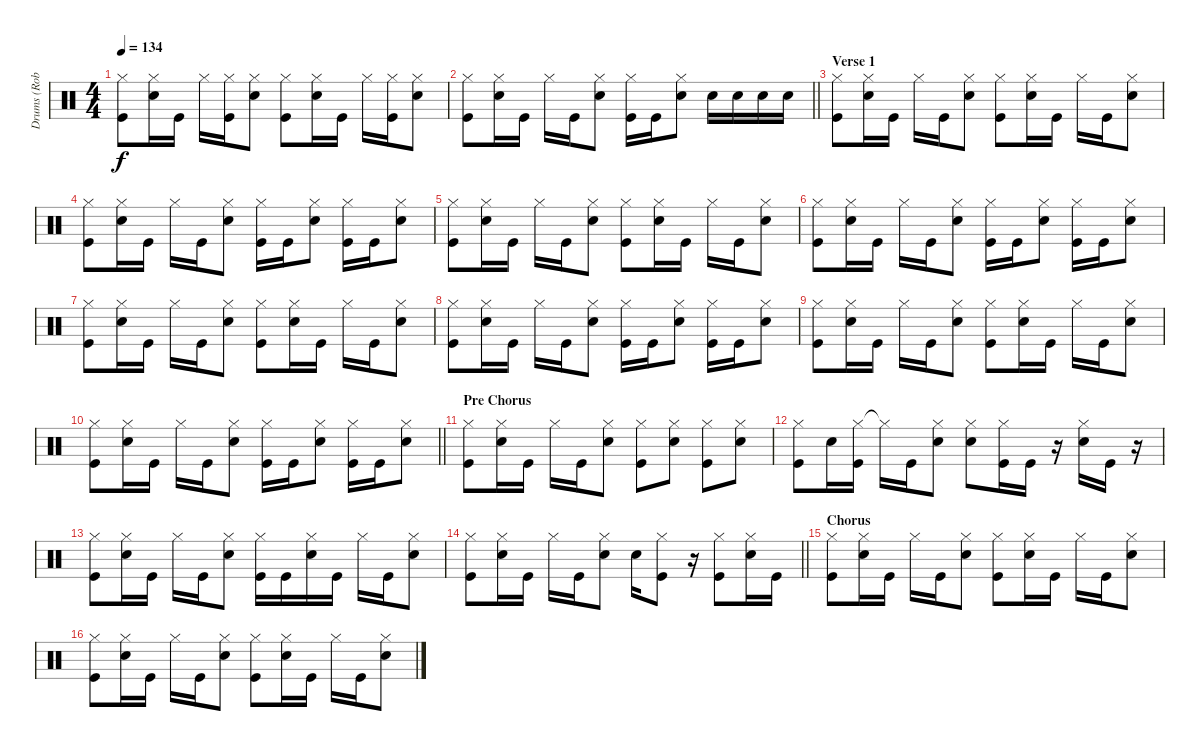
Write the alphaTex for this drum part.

\track ("Drums (Rob Affuso)" "Drums (Rob") {instrument percussion}
\staff {score}
\articulation defaults
\ts (4 4)
\tempo 134
\clef neutral
\ks c
("Hi-Hat (closed)" "Kick (hit)").8{dy f} ("Hi-Hat (closed)" "Snare (hit) 2").16 "Kick (hit)".16 "Hi-Hat (closed)".16 ("Hi-Hat (closed)" "Kick (hit)").16 ("Hi-Hat (closed)" "Snare (hit) 2").8 ("Hi-Hat (closed)" "Kick (hit)").8 ("Hi-Hat (closed)" "Snare (hit) 2").16 "Kick (hit)".16 "Hi-Hat (closed)".16 ("Hi-Hat (closed)" "Kick (hit)").16 ("Hi-Hat (closed)" "Snare (hit) 2").8 |
\barLineRight lightlight
("Hi-Hat (closed)" "Kick (hit)").8 ("Hi-Hat (closed)" "Snare (hit) 2").16 "Kick (hit)".16 "Hi-Hat (closed)".16 "Kick (hit)".16 ("Hi-Hat (closed)" "Snare (hit) 2").8 ("Hi-Hat (closed)" "Kick (hit)").16 "Kick (hit)".16 ("Hi-Hat (closed)" "Snare (hit) 2").8 "Snare (hit) 2".16 "Snare (hit) 2".16 "Snare (hit) 2".16 "Snare (hit) 2".16 |
\section ("" "Verse 1")
("Hi-Hat (closed)" "Kick (hit)").8 ("Hi-Hat (closed)" "Snare (hit) 2").16 "Kick (hit)".16 "Hi-Hat (closed)".16 "Kick (hit)".16 ("Hi-Hat (closed)" "Snare (hit) 2").8 ("Hi-Hat (closed)" "Kick (hit)").8 ("Hi-Hat (closed)" "Snare (hit) 2").16 "Kick (hit)".16 "Hi-Hat (closed)".16 "Kick (hit)".16 ("Hi-Hat (closed)" "Snare (hit) 2").8 |
("Hi-Hat (closed)" "Kick (hit)").8 ("Hi-Hat (closed)" "Snare (hit) 2").16 "Kick (hit)".16 "Hi-Hat (closed)".16 "Kick (hit)".16 ("Hi-Hat (closed)" "Snare (hit) 2").8 ("Hi-Hat (closed)" "Kick (hit)").16 "Kick (hit)".16 ("Hi-Hat (closed)" "Snare (hit) 2").8 ("Hi-Hat (closed)" "Kick (hit)").16 "Kick (hit)".16 ("Hi-Hat (closed)" "Snare (hit) 2").8 |
("Hi-Hat (closed)" "Kick (hit)").8 ("Hi-Hat (closed)" "Snare (hit) 2").16 "Kick (hit)".16 "Hi-Hat (closed)".16 "Kick (hit)".16 ("Hi-Hat (closed)" "Snare (hit) 2").8 ("Hi-Hat (closed)" "Kick (hit)").8 ("Hi-Hat (closed)" "Snare (hit) 2").16 "Kick (hit)".16 "Hi-Hat (closed)".16 "Kick (hit)".16 ("Hi-Hat (closed)" "Snare (hit) 2").8 |
("Hi-Hat (closed)" "Kick (hit)").8 ("Hi-Hat (closed)" "Snare (hit) 2").16 "Kick (hit)".16 "Hi-Hat (closed)".16 "Kick (hit)".16 ("Hi-Hat (closed)" "Snare (hit) 2").8 ("Hi-Hat (closed)" "Kick (hit)").16 "Kick (hit)".16 ("Hi-Hat (closed)" "Snare (hit) 2").8 ("Hi-Hat (closed)" "Kick (hit)").16 "Kick (hit)".16 ("Hi-Hat (closed)" "Snare (hit) 2").8 |
("Hi-Hat (closed)" "Kick (hit)").8 ("Hi-Hat (closed)" "Snare (hit) 2").16 "Kick (hit)".16 "Hi-Hat (closed)".16 "Kick (hit)".16 ("Hi-Hat (closed)" "Snare (hit) 2").8 ("Hi-Hat (closed)" "Kick (hit)").8 ("Hi-Hat (closed)" "Snare (hit) 2").16 "Kick (hit)".16 "Hi-Hat (closed)".16 "Kick (hit)".16 ("Hi-Hat (closed)" "Snare (hit) 2").8 |
("Hi-Hat (closed)" "Kick (hit)").8 ("Hi-Hat (closed)" "Snare (hit) 2").16 "Kick (hit)".16 "Hi-Hat (closed)".16 "Kick (hit)".16 ("Hi-Hat (closed)" "Snare (hit) 2").8 ("Hi-Hat (closed)" "Kick (hit)").16 "Kick (hit)".16 ("Hi-Hat (closed)" "Snare (hit) 2").8 ("Hi-Hat (closed)" "Kick (hit)").16 "Kick (hit)".16 ("Hi-Hat (closed)" "Snare (hit) 2").8 |
("Hi-Hat (closed)" "Kick (hit)").8 ("Hi-Hat (closed)" "Snare (hit) 2").16 "Kick (hit)".16 "Hi-Hat (closed)".16 "Kick (hit)".16 ("Hi-Hat (closed)" "Snare (hit) 2").8 ("Hi-Hat (closed)" "Kick (hit)").8 ("Hi-Hat (closed)" "Snare (hit) 2").16 "Kick (hit)".16 "Hi-Hat (closed)".16 "Kick (hit)".16 ("Hi-Hat (closed)" "Snare (hit) 2").8 |
\barLineRight lightlight
("Hi-Hat (closed)" "Kick (hit)").8 ("Hi-Hat (closed)" "Snare (hit) 2").16 "Kick (hit)".16 "Hi-Hat (closed)".16 "Kick (hit)".16 ("Hi-Hat (closed)" "Snare (hit) 2").8 ("Hi-Hat (closed)" "Kick (hit)").16 "Kick (hit)".16 ("Hi-Hat (closed)" "Snare (hit) 2").8 ("Hi-Hat (closed)" "Kick (hit)").16 "Kick (hit)".16 ("Hi-Hat (closed)" "Snare (hit) 2").8 |
\section ("" "Pre Chorus")
("Hi-Hat (closed)" "Kick (hit)").8 ("Hi-Hat (closed)" "Snare (hit) 2").16 "Kick (hit)".16 "Hi-Hat (closed)".16 "Kick (hit)".16 ("Hi-Hat (closed)" "Snare (hit) 2").8 ("Hi-Hat (closed)" "Kick (hit)").8 ("Hi-Hat (closed)" "Snare (hit) 2").8 ("Hi-Hat (closed)" "Kick (hit)").8 ("Hi-Hat (closed)" "Snare (hit) 2").8 |
("Hi-Hat (closed)" "Kick (hit)").8 "Snare (hit) 2".16 ("Hi-Hat (closed)" "Kick (hit)").16 "Hi-Hat (closed)"{t}.16 "Kick (hit)".16 ("Hi-Hat (closed)" "Snare (hit) 2").8 ("Hi-Hat (closed)" "Snare (hit) 2").8 ("Hi-Hat (closed)" "Kick (hit)").16 "Kick (hit)".16 r.16 ("Hi-Hat (closed)" "Snare (hit) 2").16 "Kick (hit)".16 r.16 |
("Hi-Hat (closed)" "Kick (hit)").8 ("Hi-Hat (closed)" "Snare (hit) 2").16 "Kick (hit)".16 "Hi-Hat (closed)".16 "Kick (hit)".16 ("Hi-Hat (closed)" "Snare (hit) 2").8 ("Hi-Hat (closed)" "Kick (hit)").16 "Kick (hit)".16 ("Hi-Hat (closed)" "Snare (hit) 2").16 "Kick (hit)".16 "Hi-Hat (closed)".16 "Kick (hit)".16 ("Hi-Hat (closed)" "Snare (hit) 2").8 |
\barLineRight lightlight
("Hi-Hat (closed)" "Kick (hit)").8 ("Hi-Hat (closed)" "Snare (hit) 2").16 "Kick (hit)".16 "Hi-Hat (closed)".16 "Kick (hit)".16 ("Hi-Hat (closed)" "Snare (hit) 2").8 "Snare (hit) 2".16 ("Hi-Hat (closed)" "Kick (hit)").8 r.16 ("Hi-Hat (closed)" "Kick (hit)").8 ("Hi-Hat (closed)" "Snare (hit) 2").16 "Kick (hit)".16 |
\section ("" "Chorus")
("Hi-Hat (closed)" "Kick (hit)").8 ("Hi-Hat (closed)" "Snare (hit) 2").16 "Kick (hit)".16 "Hi-Hat (closed)".16 "Kick (hit)".16 ("Hi-Hat (closed)" "Snare (hit) 2").8 ("Hi-Hat (closed)" "Kick (hit)").8 ("Hi-Hat (closed)" "Snare (hit) 2").16 "Kick (hit)".16 "Hi-Hat (closed)".16 "Kick (hit)".16 ("Hi-Hat (closed)" "Snare (hit) 2").8 |
("Hi-Hat (closed)" "Kick (hit)").8 ("Hi-Hat (closed)" "Snare (hit) 2").16 "Kick (hit)".16 "Hi-Hat (closed)".16 "Kick (hit)".16 ("Hi-Hat (closed)" "Snare (hit) 2").8 ("Hi-Hat (closed)" "Kick (hit)").8 ("Hi-Hat (closed)" "Snare (hit) 2").16 "Kick (hit)".16 "Hi-Hat (closed)".16 "Kick (hit)".16 ("Hi-Hat (closed)" "Snare (hit) 2").8
